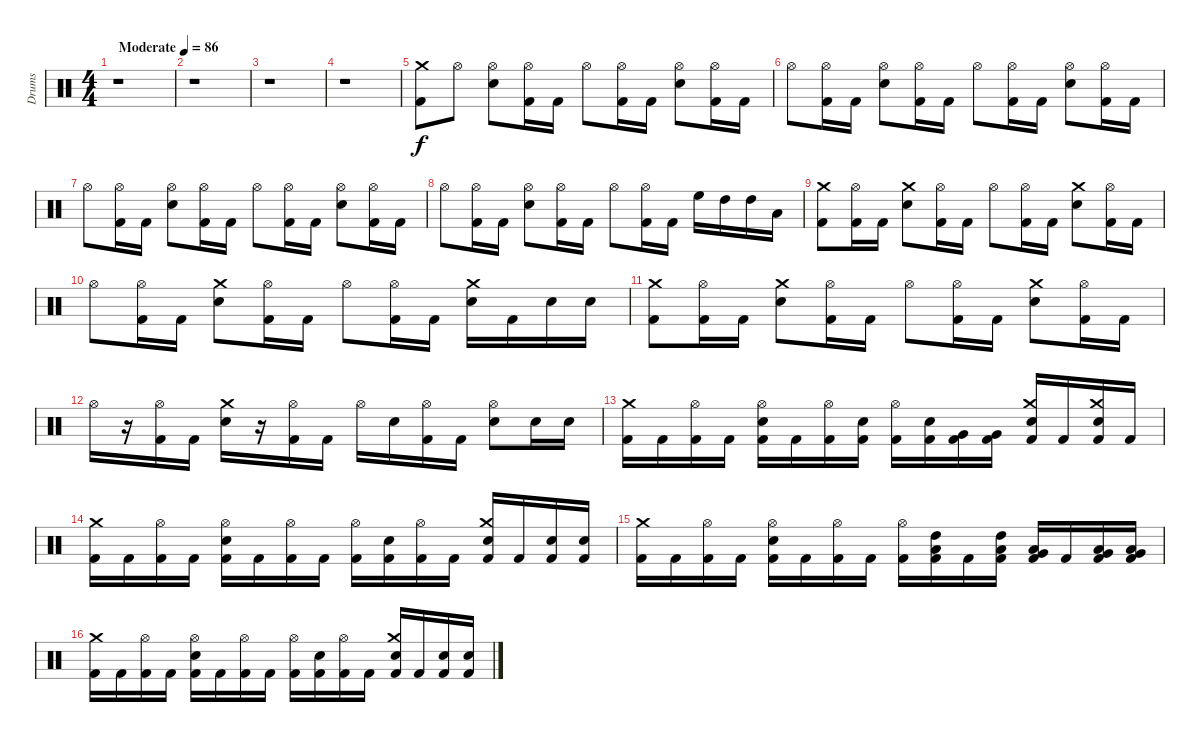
\track ("Drums" "Drums") {instrument percussion}
\staff {score}
\articulation defaults
\ts (4 4)
\tempo (86 "Moderate")
\clef neutral
\ks c
r.1{dy f} |
r.1 |
r.1 |
r.1 |
("Kick (hit) 2" "Crash medium (hit)").8 "Hi-Hat (open)".8 ("Snare (hit) 2" "Hi-Hat (open)").8 ("Kick (hit) 2" "Hi-Hat (open)").16 "Kick (hit) 2".16 "Hi-Hat (open)".8 ("Kick (hit) 2" "Hi-Hat (open)").16 "Kick (hit) 2".16 ("Snare (hit) 2" "Hi-Hat (open)").8 ("Kick (hit) 2" "Hi-Hat (open)").16 "Kick (hit) 2".16 |
"Hi-Hat (open)".8 ("Kick (hit) 2" "Hi-Hat (open)").16 "Kick (hit) 2".16 ("Snare (hit) 2" "Hi-Hat (open)").8 ("Kick (hit) 2" "Hi-Hat (open)").16 "Kick (hit) 2".16 "Hi-Hat (open)".8 ("Kick (hit) 2" "Hi-Hat (open)").16 "Kick (hit) 2".16 ("Snare (hit) 2" "Hi-Hat (open)").8 ("Kick (hit) 2" "Hi-Hat (open)").16 "Kick (hit) 2".16 |
"Hi-Hat (open)".8 ("Kick (hit) 2" "Hi-Hat (open)").16 "Kick (hit) 2".16 ("Snare (hit) 2" "Hi-Hat (open)").8 ("Kick (hit) 2" "Hi-Hat (open)").16 "Kick (hit) 2".16 "Hi-Hat (open)".8 ("Kick (hit) 2" "Hi-Hat (open)").16 "Kick (hit) 2".16 ("Snare (hit) 2" "Hi-Hat (open)").8 ("Kick (hit) 2" "Hi-Hat (open)").16 "Kick (hit) 2".16 |
"Hi-Hat (open)".8 ("Kick (hit) 2" "Hi-Hat (open)").16 "Kick (hit) 2".16 ("Snare (hit) 2" "Hi-Hat (open)").8 ("Kick (hit) 2" "Hi-Hat (open)").16 "Kick (hit) 2".16 "Hi-Hat (open)".8 ("Kick (hit) 2" "Hi-Hat (open)").16 "Kick (hit) 2".16 "High Floor Tom (hit)".16 "High Tom (hit)".16 "High Tom (hit)".16 "Low Tom (hit)".16 |
("Kick (hit) 2" "Crash medium (hit)").8 ("Kick (hit) 2" "Hi-Hat (open)").16 "Kick (hit) 2".16 ("Snare (hit) 2" "Crash medium (hit)").8 ("Kick (hit) 2" "Hi-Hat (open)").16 "Kick (hit) 2".16 "Hi-Hat (open)".8 ("Kick (hit) 2" "Hi-Hat (open)").16 "Kick (hit) 2".16 ("Snare (hit) 2" "Crash medium (hit)").8 ("Kick (hit) 2" "Hi-Hat (open)").16 "Kick (hit) 2".16 |
"Hi-Hat (open)".8 ("Kick (hit) 2" "Hi-Hat (open)").16 "Kick (hit) 2".16 ("Snare (hit) 2" "Crash medium (hit)").8 ("Kick (hit) 2" "Hi-Hat (open)").16 "Kick (hit) 2".16 "Hi-Hat (open)".8 ("Kick (hit) 2" "Hi-Hat (open)").16 "Kick (hit) 2".16 ("Snare (hit) 2" "Crash medium (hit)").16 "Kick (hit) 2".16 "Snare (hit) 2".16 "Snare (hit) 2".16 |
("Kick (hit) 2" "Crash medium (hit)").8 ("Kick (hit) 2" "Hi-Hat (open)").16 "Kick (hit) 2".16 ("Snare (hit) 2" "Crash medium (hit)").8 ("Kick (hit) 2" "Hi-Hat (open)").16 "Kick (hit) 2".16 "Hi-Hat (open)".8 ("Kick (hit) 2" "Hi-Hat (open)").16 "Kick (hit) 2".16 ("Snare (hit) 2" "Crash medium (hit)").8 ("Kick (hit) 2" "Hi-Hat (open)").16 "Kick (hit) 2".16 |
"Hi-Hat (open)".16 r.16 ("Kick (hit) 2" "Hi-Hat (open)").16 "Kick (hit) 2".16 ("Snare (hit) 2" "Crash medium (hit)").16 r.16 ("Kick (hit) 2" "Hi-Hat (open)").16 "Kick (hit) 2".16 "Hi-Hat (open)".16 "Snare (hit) 2".16 ("Kick (hit) 2" "Hi-Hat (open)").16 "Kick (hit) 2".16 ("Snare (hit) 2" "Hi-Hat (open)").8 "Snare (hit) 2".16 "Snare (hit) 2".16 |
("Crash medium (hit)" "Kick (hit) 2").16 "Kick (hit) 2".16 ("Hi-Hat (open)" "Kick (hit) 2").16 "Kick (hit) 2".16 ("Hi-Hat (open)" "Snare (hit) 2" "Kick (hit) 2").16 "Kick (hit) 2".16 ("Hi-Hat (open)" "Kick (hit) 2").16 ("Snare (hit) 2" "Kick (hit) 2").16 ("Hi-Hat (open)" "Kick (hit) 2").16 ("Snare (hit) 2" "Kick (hit) 2").16 ("Very Low Tom (hit)" "Kick (hit) 2").16 ("Very Low Tom (hit)" "Kick (hit) 2").16 ("Snare (hit) 2" "Crash medium (hit)" "Kick (hit) 2").16 "Kick (hit) 2".16 ("Snare (hit) 2" "Crash medium (hit)" "Kick (hit) 2").16 "Kick (hit) 2".16 |
("Crash medium (hit)" "Kick (hit) 2").16 "Kick (hit) 2".16 ("Hi-Hat (open)" "Kick (hit) 2").16 "Kick (hit) 2".16 ("Snare (hit) 2" "Hi-Hat (open)" "Kick (hit) 2").16 "Kick (hit) 2".16 ("Hi-Hat (open)" "Kick (hit) 2").16 "Kick (hit) 2".16 ("Hi-Hat (open)" "Kick (hit) 2").16 ("Snare (hit) 2" "Kick (hit) 2").16 ("Hi-Hat (open)" "Kick (hit) 2").16 "Kick (hit) 2".16 ("Snare (hit) 2" "Crash medium (hit)" "Kick (hit) 2").16 "Kick (hit) 2".16 ("Snare (hit) 2" "Kick (hit) 2").16 ("Snare (hit) 2" "Kick (hit) 2").16 |
("Crash medium (hit)" "Kick (hit) 2").16 "Kick (hit) 2".16 ("Hi-Hat (open)" "Kick (hit) 2").16 "Kick (hit) 2".16 ("Snare (hit) 2" "Hi-Hat (open)" "Kick (hit) 2").16 "Kick (hit) 2".16 ("Hi-Hat (open)" "Kick (hit) 2").16 "Kick (hit) 2".16 ("Hi-Hat (open)" "Kick (hit) 2").16 ("Low Tom (hit)" "High Tom (hit)" "Kick (hit) 2").16 "Kick (hit) 2".16 ("Low Tom (hit)" "High Tom (hit)" "Kick (hit) 2").16 ("Low Tom (hit)" "Very Low Tom (hit)" "Kick (hit) 2").16 "Kick (hit) 2".16 ("Low Tom (hit)" "Very Low Tom (hit)" "Kick (hit) 2").16 ("Low Tom (hit)" "Very Low Tom (hit)" "Kick (hit) 2").16 |
("Crash medium (hit)" "Kick (hit) 2").16 "Kick (hit) 2".16 ("Hi-Hat (open)" "Kick (hit) 2").16 "Kick (hit) 2".16 ("Snare (hit) 2" "Hi-Hat (open)" "Kick (hit) 2").16 "Kick (hit) 2".16 ("Hi-Hat (open)" "Kick (hit) 2").16 "Kick (hit) 2".16 ("Hi-Hat (open)" "Kick (hit) 2").16 ("Snare (hit) 2" "Kick (hit) 2").16 ("Hi-Hat (open)" "Kick (hit) 2").16 "Kick (hit) 2".16 ("Snare (hit) 2" "Crash medium (hit)" "Kick (hit) 2").16 "Kick (hit) 2".16 ("Snare (hit) 2" "Kick (hit) 2").16 ("Snare (hit) 2" "Kick (hit) 2").16
